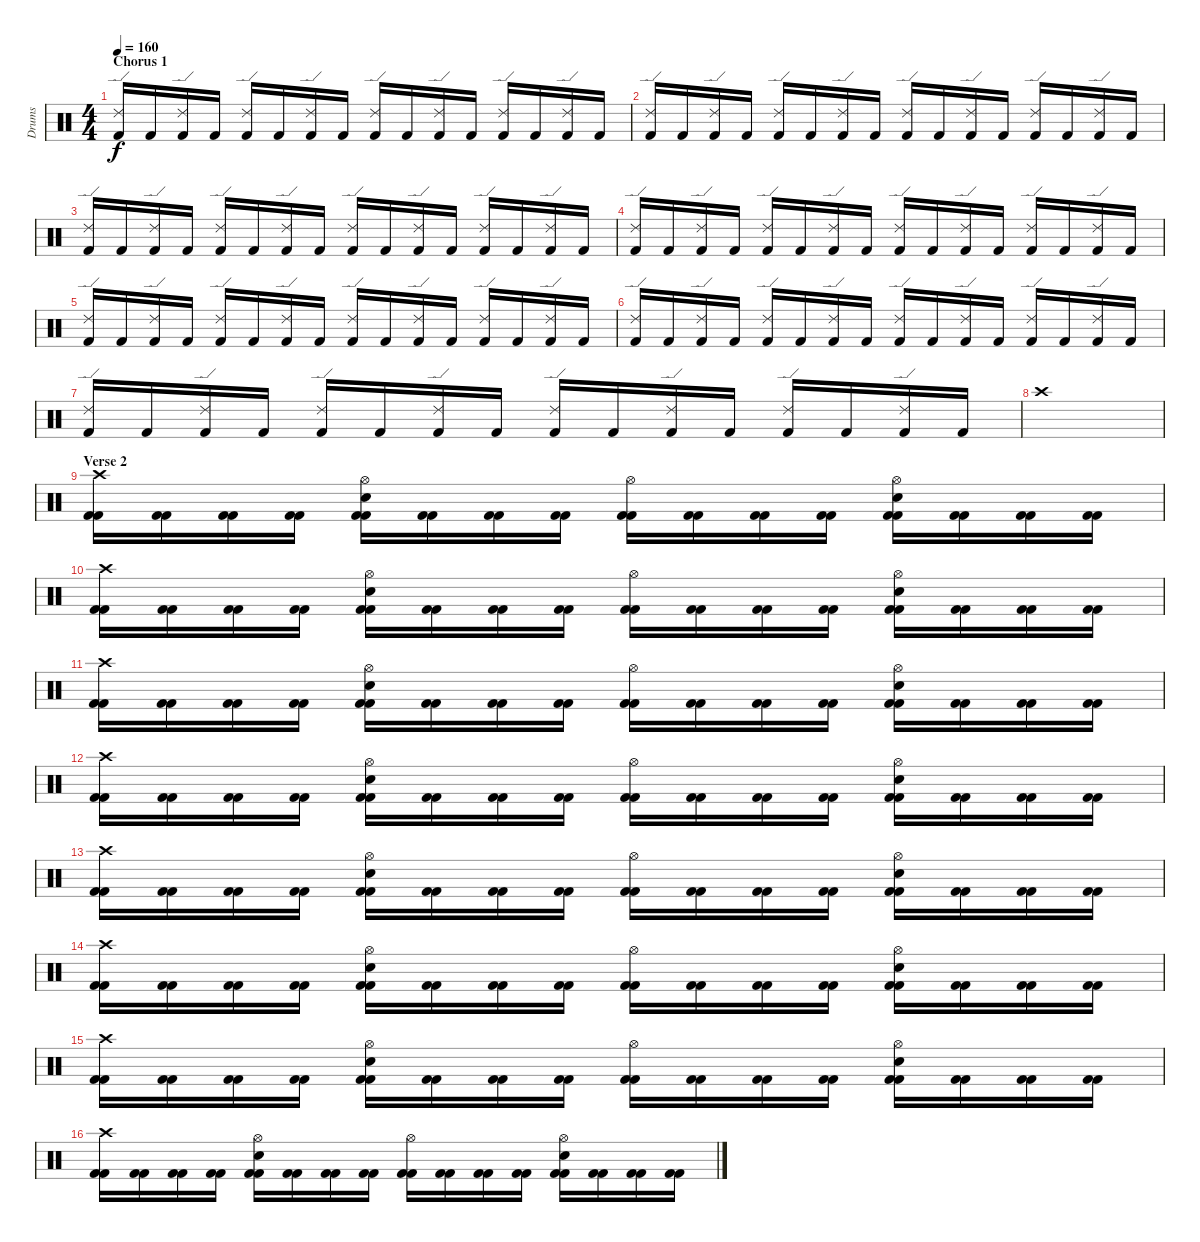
\track ("Drums" "Drums") {instrument percussion}
\staff {score}
\articulation defaults
\ts (4 4)
\section ("" "Chorus 1")
\tempo 160
\clef neutral
\ks c
("Kick (hit) 2" "Ride (edge) 2").16{dy f} "Kick (hit) 2".16 ("Kick (hit) 2" "Ride (edge) 2").16 "Kick (hit) 2".16 ("Kick (hit) 2" "Ride (edge) 2").16 "Kick (hit) 2".16 ("Kick (hit) 2" "Ride (edge) 2").16 "Kick (hit) 2".16 ("Kick (hit) 2" "Ride (edge) 2").16 "Kick (hit) 2".16 ("Kick (hit) 2" "Ride (edge) 2").16 "Kick (hit) 2".16 ("Kick (hit) 2" "Ride (edge) 2").16 "Kick (hit) 2".16 ("Kick (hit) 2" "Ride (edge) 2").16 "Kick (hit) 2".16 |
("Kick (hit) 2" "Ride (edge) 2").16 "Kick (hit) 2".16 ("Kick (hit) 2" "Ride (edge) 2").16 "Kick (hit) 2".16 ("Kick (hit) 2" "Ride (edge) 2").16 "Kick (hit) 2".16 ("Kick (hit) 2" "Ride (edge) 2").16 "Kick (hit) 2".16 ("Kick (hit) 2" "Ride (edge) 2").16 "Kick (hit) 2".16 ("Kick (hit) 2" "Ride (edge) 2").16 "Kick (hit) 2".16 ("Kick (hit) 2" "Ride (edge) 2").16 "Kick (hit) 2".16 ("Kick (hit) 2" "Ride (edge) 2").16 "Kick (hit) 2".16 |
("Kick (hit) 2" "Ride (edge) 2").16 "Kick (hit) 2".16 ("Kick (hit) 2" "Ride (edge) 2").16 "Kick (hit) 2".16 ("Kick (hit) 2" "Ride (edge) 2").16 "Kick (hit) 2".16 ("Kick (hit) 2" "Ride (edge) 2").16 "Kick (hit) 2".16 ("Kick (hit) 2" "Ride (edge) 2").16 "Kick (hit) 2".16 ("Kick (hit) 2" "Ride (edge) 2").16 "Kick (hit) 2".16 ("Kick (hit) 2" "Ride (edge) 2").16 "Kick (hit) 2".16 ("Kick (hit) 2" "Ride (edge) 2").16 "Kick (hit) 2".16 |
("Kick (hit) 2" "Ride (edge) 2").16 "Kick (hit) 2".16 ("Kick (hit) 2" "Ride (edge) 2").16 "Kick (hit) 2".16 ("Kick (hit) 2" "Ride (edge) 2").16 "Kick (hit) 2".16 ("Kick (hit) 2" "Ride (edge) 2").16 "Kick (hit) 2".16 ("Kick (hit) 2" "Ride (edge) 2").16 "Kick (hit) 2".16 ("Kick (hit) 2" "Ride (edge) 2").16 "Kick (hit) 2".16 ("Kick (hit) 2" "Ride (edge) 2").16 "Kick (hit) 2".16 ("Kick (hit) 2" "Ride (edge) 2").16 "Kick (hit) 2".16 |
("Kick (hit) 2" "Ride (edge) 2").16 "Kick (hit) 2".16 ("Kick (hit) 2" "Ride (edge) 2").16 "Kick (hit) 2".16 ("Kick (hit) 2" "Ride (edge) 2").16 "Kick (hit) 2".16 ("Kick (hit) 2" "Ride (edge) 2").16 "Kick (hit) 2".16 ("Kick (hit) 2" "Ride (edge) 2").16 "Kick (hit) 2".16 ("Kick (hit) 2" "Ride (edge) 2").16 "Kick (hit) 2".16 ("Kick (hit) 2" "Ride (edge) 2").16 "Kick (hit) 2".16 ("Kick (hit) 2" "Ride (edge) 2").16 "Kick (hit) 2".16 |
("Kick (hit) 2" "Ride (edge) 2").16 "Kick (hit) 2".16 ("Kick (hit) 2" "Ride (edge) 2").16 "Kick (hit) 2".16 ("Kick (hit) 2" "Ride (edge) 2").16 "Kick (hit) 2".16 ("Kick (hit) 2" "Ride (edge) 2").16 "Kick (hit) 2".16 ("Kick (hit) 2" "Ride (edge) 2").16 "Kick (hit) 2".16 ("Kick (hit) 2" "Ride (edge) 2").16 "Kick (hit) 2".16 ("Kick (hit) 2" "Ride (edge) 2").16 "Kick (hit) 2".16 ("Kick (hit) 2" "Ride (edge) 2").16 "Kick (hit) 2".16 |
("Kick (hit) 2" "Ride (edge) 2").16 "Kick (hit) 2".16 ("Kick (hit) 2" "Ride (edge) 2").16 "Kick (hit) 2".16 ("Kick (hit) 2" "Ride (edge) 2").16 "Kick (hit) 2".16 ("Kick (hit) 2" "Ride (edge) 2").16 "Kick (hit) 2".16 ("Kick (hit) 2" "Ride (edge) 2").16 "Kick (hit) 2".16 ("Kick (hit) 2" "Ride (edge) 2").16 "Kick (hit) 2".16 ("Kick (hit) 2" "Ride (edge) 2").16 "Kick (hit) 2".16 ("Kick (hit) 2" "Ride (edge) 2").16 "Kick (hit) 2".16 |
"Crash high (hit)".1 |
\section ("" "Verse 2")
("Kick (hit) 2" "Kick (hit) 2" "Crash high (hit)").16 ("Kick (hit) 2" "Kick (hit) 2").16 ("Kick (hit) 2" "Kick (hit) 2").16 ("Kick (hit) 2" "Kick (hit) 2").16 ("Kick (hit) 2" "Kick (hit) 2" "Electric Snare (hit)" "Hi-Hat (open)").16 ("Kick (hit) 2" "Kick (hit) 2").16 ("Kick (hit) 2" "Kick (hit) 2").16 ("Kick (hit) 2" "Kick (hit) 2").16 ("Kick (hit) 2" "Kick (hit) 2" "Hi-Hat (open)").16 ("Kick (hit) 2" "Kick (hit) 2").16 ("Kick (hit) 2" "Kick (hit) 2").16 ("Kick (hit) 2" "Kick (hit) 2").16 ("Kick (hit) 2" "Kick (hit) 2" "Electric Snare (hit)" "Hi-Hat (open)").16 ("Kick (hit) 2" "Kick (hit) 2").16 ("Kick (hit) 2" "Kick (hit) 2").16 ("Kick (hit) 2" "Kick (hit) 2").16 |
("Kick (hit) 2" "Kick (hit) 2" "Crash high (hit)").16 ("Kick (hit) 2" "Kick (hit) 2").16 ("Kick (hit) 2" "Kick (hit) 2").16 ("Kick (hit) 2" "Kick (hit) 2").16 ("Kick (hit) 2" "Kick (hit) 2" "Electric Snare (hit)" "Hi-Hat (open)").16 ("Kick (hit) 2" "Kick (hit) 2").16 ("Kick (hit) 2" "Kick (hit) 2").16 ("Kick (hit) 2" "Kick (hit) 2").16 ("Kick (hit) 2" "Kick (hit) 2" "Hi-Hat (open)").16 ("Kick (hit) 2" "Kick (hit) 2").16 ("Kick (hit) 2" "Kick (hit) 2").16 ("Kick (hit) 2" "Kick (hit) 2").16 ("Kick (hit) 2" "Kick (hit) 2" "Electric Snare (hit)" "Hi-Hat (open)").16 ("Kick (hit) 2" "Kick (hit) 2").16 ("Kick (hit) 2" "Kick (hit) 2").16 ("Kick (hit) 2" "Kick (hit) 2").16 |
("Kick (hit) 2" "Kick (hit) 2" "Crash high (hit)").16 ("Kick (hit) 2" "Kick (hit) 2").16 ("Kick (hit) 2" "Kick (hit) 2").16 ("Kick (hit) 2" "Kick (hit) 2").16 ("Kick (hit) 2" "Kick (hit) 2" "Electric Snare (hit)" "Hi-Hat (open)").16 ("Kick (hit) 2" "Kick (hit) 2").16 ("Kick (hit) 2" "Kick (hit) 2").16 ("Kick (hit) 2" "Kick (hit) 2").16 ("Kick (hit) 2" "Kick (hit) 2" "Hi-Hat (open)").16 ("Kick (hit) 2" "Kick (hit) 2").16 ("Kick (hit) 2" "Kick (hit) 2").16 ("Kick (hit) 2" "Kick (hit) 2").16 ("Kick (hit) 2" "Kick (hit) 2" "Electric Snare (hit)" "Hi-Hat (open)").16 ("Kick (hit) 2" "Kick (hit) 2").16 ("Kick (hit) 2" "Kick (hit) 2").16 ("Kick (hit) 2" "Kick (hit) 2").16 |
("Kick (hit) 2" "Kick (hit) 2" "Crash high (hit)").16 ("Kick (hit) 2" "Kick (hit) 2").16 ("Kick (hit) 2" "Kick (hit) 2").16 ("Kick (hit) 2" "Kick (hit) 2").16 ("Kick (hit) 2" "Kick (hit) 2" "Electric Snare (hit)" "Hi-Hat (open)").16 ("Kick (hit) 2" "Kick (hit) 2").16 ("Kick (hit) 2" "Kick (hit) 2").16 ("Kick (hit) 2" "Kick (hit) 2").16 ("Kick (hit) 2" "Kick (hit) 2" "Hi-Hat (open)").16 ("Kick (hit) 2" "Kick (hit) 2").16 ("Kick (hit) 2" "Kick (hit) 2").16 ("Kick (hit) 2" "Kick (hit) 2").16 ("Kick (hit) 2" "Kick (hit) 2" "Electric Snare (hit)" "Hi-Hat (open)").16 ("Kick (hit) 2" "Kick (hit) 2").16 ("Kick (hit) 2" "Kick (hit) 2").16 ("Kick (hit) 2" "Kick (hit) 2").16 |
("Kick (hit) 2" "Kick (hit) 2" "Crash high (hit)").16 ("Kick (hit) 2" "Kick (hit) 2").16 ("Kick (hit) 2" "Kick (hit) 2").16 ("Kick (hit) 2" "Kick (hit) 2").16 ("Kick (hit) 2" "Kick (hit) 2" "Electric Snare (hit)" "Hi-Hat (open)").16 ("Kick (hit) 2" "Kick (hit) 2").16 ("Kick (hit) 2" "Kick (hit) 2").16 ("Kick (hit) 2" "Kick (hit) 2").16 ("Kick (hit) 2" "Kick (hit) 2" "Hi-Hat (open)").16 ("Kick (hit) 2" "Kick (hit) 2").16 ("Kick (hit) 2" "Kick (hit) 2").16 ("Kick (hit) 2" "Kick (hit) 2").16 ("Kick (hit) 2" "Kick (hit) 2" "Electric Snare (hit)" "Hi-Hat (open)").16 ("Kick (hit) 2" "Kick (hit) 2").16 ("Kick (hit) 2" "Kick (hit) 2").16 ("Kick (hit) 2" "Kick (hit) 2").16 |
("Kick (hit) 2" "Kick (hit) 2" "Crash high (hit)").16 ("Kick (hit) 2" "Kick (hit) 2").16 ("Kick (hit) 2" "Kick (hit) 2").16 ("Kick (hit) 2" "Kick (hit) 2").16 ("Kick (hit) 2" "Kick (hit) 2" "Electric Snare (hit)" "Hi-Hat (open)").16 ("Kick (hit) 2" "Kick (hit) 2").16 ("Kick (hit) 2" "Kick (hit) 2").16 ("Kick (hit) 2" "Kick (hit) 2").16 ("Kick (hit) 2" "Kick (hit) 2" "Hi-Hat (open)").16 ("Kick (hit) 2" "Kick (hit) 2").16 ("Kick (hit) 2" "Kick (hit) 2").16 ("Kick (hit) 2" "Kick (hit) 2").16 ("Kick (hit) 2" "Kick (hit) 2" "Electric Snare (hit)" "Hi-Hat (open)").16 ("Kick (hit) 2" "Kick (hit) 2").16 ("Kick (hit) 2" "Kick (hit) 2").16 ("Kick (hit) 2" "Kick (hit) 2").16 |
("Kick (hit) 2" "Kick (hit) 2" "Crash high (hit)").16 ("Kick (hit) 2" "Kick (hit) 2").16 ("Kick (hit) 2" "Kick (hit) 2").16 ("Kick (hit) 2" "Kick (hit) 2").16 ("Kick (hit) 2" "Kick (hit) 2" "Electric Snare (hit)" "Hi-Hat (open)").16 ("Kick (hit) 2" "Kick (hit) 2").16 ("Kick (hit) 2" "Kick (hit) 2").16 ("Kick (hit) 2" "Kick (hit) 2").16 ("Kick (hit) 2" "Kick (hit) 2" "Hi-Hat (open)").16 ("Kick (hit) 2" "Kick (hit) 2").16 ("Kick (hit) 2" "Kick (hit) 2").16 ("Kick (hit) 2" "Kick (hit) 2").16 ("Kick (hit) 2" "Kick (hit) 2" "Electric Snare (hit)" "Hi-Hat (open)").16 ("Kick (hit) 2" "Kick (hit) 2").16 ("Kick (hit) 2" "Kick (hit) 2").16 ("Kick (hit) 2" "Kick (hit) 2").16 |
("Kick (hit) 2" "Kick (hit) 2" "Crash high (hit)").16 ("Kick (hit) 2" "Kick (hit) 2").16 ("Kick (hit) 2" "Kick (hit) 2").16 ("Kick (hit) 2" "Kick (hit) 2").16 ("Kick (hit) 2" "Kick (hit) 2" "Electric Snare (hit)" "Hi-Hat (open)").16 ("Kick (hit) 2" "Kick (hit) 2").16 ("Kick (hit) 2" "Kick (hit) 2").16 ("Kick (hit) 2" "Kick (hit) 2").16 ("Kick (hit) 2" "Kick (hit) 2" "Hi-Hat (open)").16 ("Kick (hit) 2" "Kick (hit) 2").16 ("Kick (hit) 2" "Kick (hit) 2").16 ("Kick (hit) 2" "Kick (hit) 2").16 ("Kick (hit) 2" "Kick (hit) 2" "Electric Snare (hit)" "Hi-Hat (open)").16 ("Kick (hit) 2" "Kick (hit) 2").16 ("Kick (hit) 2" "Kick (hit) 2").16 ("Kick (hit) 2" "Kick (hit) 2").16
